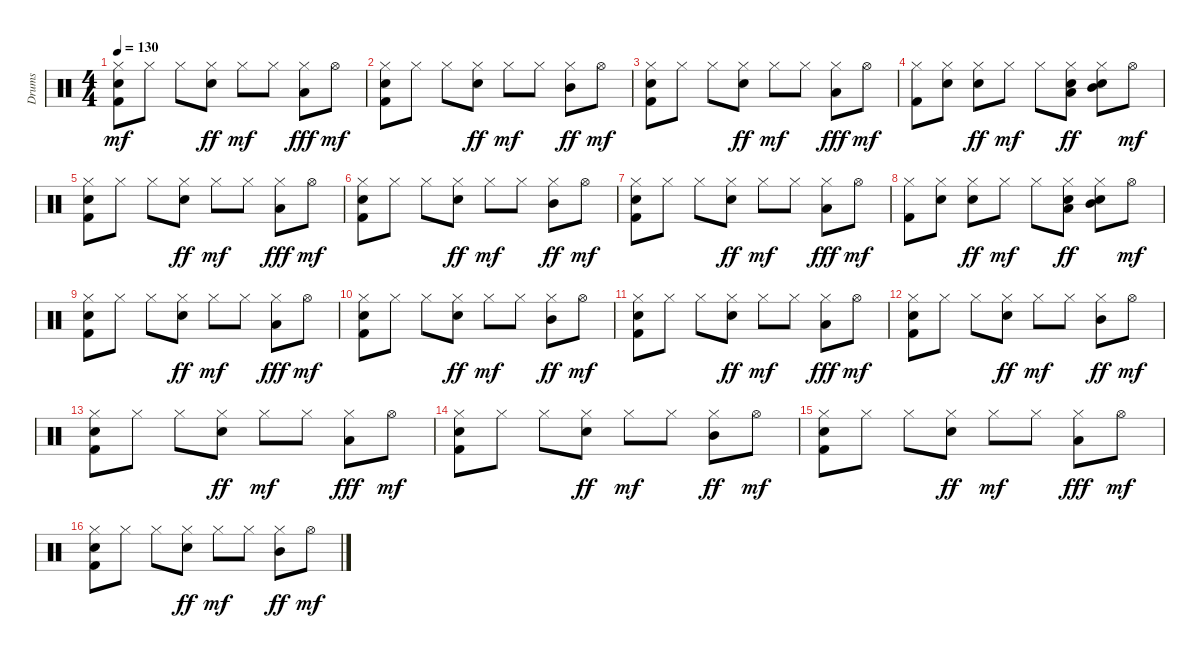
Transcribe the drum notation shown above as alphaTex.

\track ("Drums" "Drums") {instrument percussion}
\staff {score}
\articulation defaults
\ts (4 4)
\tempo 130
\clef neutral
\ks c
("Hi-Hat (closed)" "Snare (hit) 2" "Kick (hit) 2").8{dy mf} "Hi-Hat (closed)".8 "Hi-Hat (closed)".8 ("Hi-Hat (closed)" "Electric Snare (hit)").8{dy ff} "Hi-Hat (closed)".8{dy mf} "Hi-Hat (closed)".8 ("Hi-Hat (closed)" "Low Tom (hit)").8{dy fff} "Hi-Hat (open)".8{dy mf} |
("Hi-Hat (closed)" "Electric Snare (hit)" "Kick (hit) 2").8 "Hi-Hat (closed)".8 "Hi-Hat (closed)".8 ("Hi-Hat (closed)" "Electric Snare (hit)").8{dy ff} "Hi-Hat (closed)".8{dy mf} "Hi-Hat (closed)".8 ("Hi-Hat (closed)" "Mid Tom (hit)").8{dy ff} "Hi-Hat (open)".8{dy mf} |
("Hi-Hat (closed)" "Snare (hit) 2" "Kick (hit) 2").8 "Hi-Hat (closed)".8 "Hi-Hat (closed)".8 ("Hi-Hat (closed)" "Electric Snare (hit)").8{dy ff} "Hi-Hat (closed)".8{dy mf} "Hi-Hat (closed)".8 ("Hi-Hat (closed)" "Low Tom (hit)").8{dy fff} "Hi-Hat (open)".8{dy mf} |
("Hi-Hat (closed)" "Kick (hit) 2").8 ("Hi-Hat (closed)" "Electric Snare (hit)").8 ("Hi-Hat (closed)" "Electric Snare (hit)").8{dy ff} "Hi-Hat (closed)".8{dy mf} "Hi-Hat (closed)".8 ("Hi-Hat (closed)" "Electric Snare (hit)" "Low Tom (hit)").8{dy ff} ("Hi-Hat (closed)" "Electric Snare (hit)" "Mid Tom (hit)").8 "Hi-Hat (open)".8{dy mf} |
("Hi-Hat (closed)" "Snare (hit) 2" "Kick (hit) 2").8 "Hi-Hat (closed)".8 "Hi-Hat (closed)".8 ("Hi-Hat (closed)" "Electric Snare (hit)").8{dy ff} "Hi-Hat (closed)".8{dy mf} "Hi-Hat (closed)".8 ("Hi-Hat (closed)" "Low Tom (hit)").8{dy fff} "Hi-Hat (open)".8{dy mf} |
("Hi-Hat (closed)" "Electric Snare (hit)" "Kick (hit) 2").8 "Hi-Hat (closed)".8 "Hi-Hat (closed)".8 ("Hi-Hat (closed)" "Electric Snare (hit)").8{dy ff} "Hi-Hat (closed)".8{dy mf} "Hi-Hat (closed)".8 ("Hi-Hat (closed)" "Mid Tom (hit)").8{dy ff} "Hi-Hat (open)".8{dy mf} |
("Hi-Hat (closed)" "Snare (hit) 2" "Kick (hit) 2").8 "Hi-Hat (closed)".8 "Hi-Hat (closed)".8 ("Hi-Hat (closed)" "Electric Snare (hit)").8{dy ff} "Hi-Hat (closed)".8{dy mf} "Hi-Hat (closed)".8 ("Hi-Hat (closed)" "Low Tom (hit)").8{dy fff} "Hi-Hat (open)".8{dy mf} |
("Hi-Hat (closed)" "Kick (hit) 2").8 ("Hi-Hat (closed)" "Electric Snare (hit)").8 ("Hi-Hat (closed)" "Electric Snare (hit)").8{dy ff} "Hi-Hat (closed)".8{dy mf} "Hi-Hat (closed)".8 ("Hi-Hat (closed)" "Electric Snare (hit)" "Low Tom (hit)").8{dy ff} ("Hi-Hat (closed)" "Electric Snare (hit)" "Mid Tom (hit)").8 "Hi-Hat (open)".8{dy mf} |
("Hi-Hat (closed)" "Snare (hit) 2" "Kick (hit) 2").8 "Hi-Hat (closed)".8 "Hi-Hat (closed)".8 ("Hi-Hat (closed)" "Electric Snare (hit)").8{dy ff} "Hi-Hat (closed)".8{dy mf} "Hi-Hat (closed)".8 ("Hi-Hat (closed)" "Low Tom (hit)").8{dy fff} "Hi-Hat (open)".8{dy mf} |
("Hi-Hat (closed)" "Electric Snare (hit)" "Kick (hit) 2").8 "Hi-Hat (closed)".8 "Hi-Hat (closed)".8 ("Hi-Hat (closed)" "Electric Snare (hit)").8{dy ff} "Hi-Hat (closed)".8{dy mf} "Hi-Hat (closed)".8 ("Hi-Hat (closed)" "Mid Tom (hit)").8{dy ff} "Hi-Hat (open)".8{dy mf} |
("Hi-Hat (closed)" "Snare (hit) 2" "Kick (hit) 2").8 "Hi-Hat (closed)".8 "Hi-Hat (closed)".8 ("Hi-Hat (closed)" "Electric Snare (hit)").8{dy ff} "Hi-Hat (closed)".8{dy mf} "Hi-Hat (closed)".8 ("Hi-Hat (closed)" "Low Tom (hit)").8{dy fff} "Hi-Hat (open)".8{dy mf} |
("Hi-Hat (closed)" "Electric Snare (hit)" "Kick (hit) 2").8 "Hi-Hat (closed)".8 "Hi-Hat (closed)".8 ("Hi-Hat (closed)" "Electric Snare (hit)").8{dy ff} "Hi-Hat (closed)".8{dy mf} "Hi-Hat (closed)".8 ("Hi-Hat (closed)" "Mid Tom (hit)").8{dy ff} "Hi-Hat (open)".8{dy mf} |
("Hi-Hat (closed)" "Snare (hit) 2" "Kick (hit) 2").8 "Hi-Hat (closed)".8 "Hi-Hat (closed)".8 ("Hi-Hat (closed)" "Electric Snare (hit)").8{dy ff} "Hi-Hat (closed)".8{dy mf} "Hi-Hat (closed)".8 ("Hi-Hat (closed)" "Low Tom (hit)").8{dy fff} "Hi-Hat (open)".8{dy mf} |
("Hi-Hat (closed)" "Electric Snare (hit)" "Kick (hit) 2").8 "Hi-Hat (closed)".8 "Hi-Hat (closed)".8 ("Hi-Hat (closed)" "Electric Snare (hit)").8{dy ff} "Hi-Hat (closed)".8{dy mf} "Hi-Hat (closed)".8 ("Hi-Hat (closed)" "Mid Tom (hit)").8{dy ff} "Hi-Hat (open)".8{dy mf} |
("Hi-Hat (closed)" "Snare (hit) 2" "Kick (hit) 2").8 "Hi-Hat (closed)".8 "Hi-Hat (closed)".8 ("Hi-Hat (closed)" "Electric Snare (hit)").8{dy ff} "Hi-Hat (closed)".8{dy mf} "Hi-Hat (closed)".8 ("Hi-Hat (closed)" "Low Tom (hit)").8{dy fff} "Hi-Hat (open)".8{dy mf} |
("Hi-Hat (closed)" "Electric Snare (hit)" "Kick (hit) 2").8 "Hi-Hat (closed)".8 "Hi-Hat (closed)".8 ("Hi-Hat (closed)" "Electric Snare (hit)").8{dy ff} "Hi-Hat (closed)".8{dy mf} "Hi-Hat (closed)".8 ("Hi-Hat (closed)" "Mid Tom (hit)").8{dy ff} "Hi-Hat (open)".8{dy mf}
